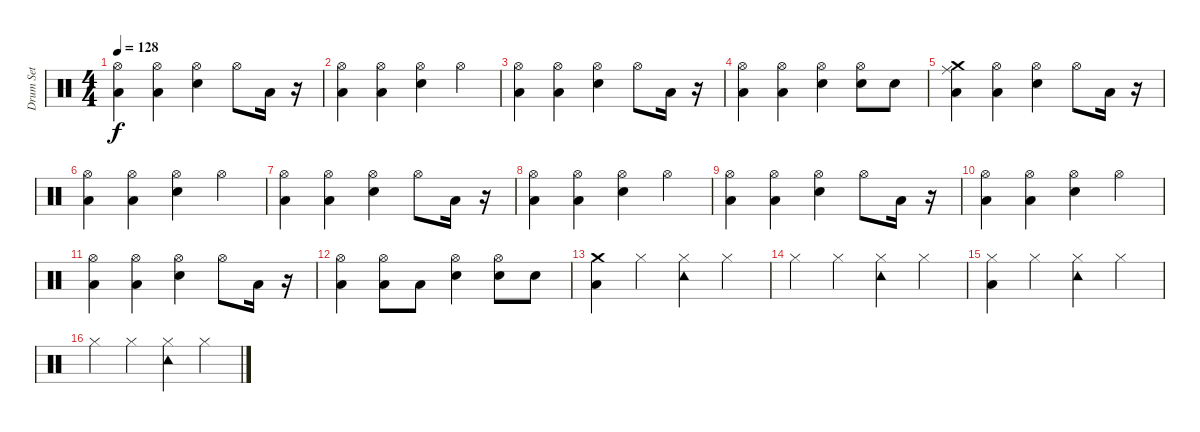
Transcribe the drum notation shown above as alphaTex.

\track ("Drum Set" "Drum Set") {instrument percussion}
\staff {score}
\articulation defaults
\ts (4 4)
\tempo 128
\clef neutral
\ks c
("Hi-Hat (open)" "Low Floor Tom (hit)").4{dy f} ("Hi-Hat (open)" "Low Floor Tom (hit)").4 ("Hi-Hat (open)" "Snare (hit) 2").4 "Hi-Hat (open)".8 "Low Floor Tom (hit)".16 r.16 |
("Hi-Hat (open)" "Low Floor Tom (hit)").4 ("Hi-Hat (open)" "Low Floor Tom (hit)").4 ("Hi-Hat (open)" "Snare (hit) 2").4 "Hi-Hat (open)".4 |
("Hi-Hat (open)" "Low Floor Tom (hit)").4 ("Hi-Hat (open)" "Low Floor Tom (hit)").4 ("Hi-Hat (open)" "Snare (hit) 2").4 "Hi-Hat (open)".8 "Low Floor Tom (hit)".16 r.16 |
("Hi-Hat (open)" "Low Floor Tom (hit)").4 ("Hi-Hat (open)" "Low Floor Tom (hit)").4 ("Hi-Hat (open)" "Snare (hit) 2").4 ("Hi-Hat (open)" "Snare (hit) 2").8 "Snare (hit) 2".8 |
("Crash medium (hit)" "Ride (middle)" "Low Floor Tom (hit)").4 ("Hi-Hat (open)" "Low Floor Tom (hit)").4 ("Hi-Hat (open)" "Snare (hit) 2").4 "Hi-Hat (open)".8 "Low Floor Tom (hit)".16 r.16 |
("Hi-Hat (open)" "Low Floor Tom (hit)").4 ("Hi-Hat (open)" "Low Floor Tom (hit)").4 ("Hi-Hat (open)" "Snare (hit) 2").4 "Hi-Hat (open)".4 |
("Hi-Hat (open)" "Low Floor Tom (hit)").4 ("Hi-Hat (open)" "Low Floor Tom (hit)").4 ("Hi-Hat (open)" "Snare (hit) 2").4 "Hi-Hat (open)".8 "Low Floor Tom (hit)".16 r.16 |
("Hi-Hat (open)" "Low Floor Tom (hit)").4 ("Hi-Hat (open)" "Low Floor Tom (hit)").4 ("Hi-Hat (open)" "Snare (hit) 2").4 "Hi-Hat (open)".4 |
("Hi-Hat (open)" "Low Floor Tom (hit)").4 ("Hi-Hat (open)" "Low Floor Tom (hit)").4 ("Hi-Hat (open)" "Snare (hit) 2").4 "Hi-Hat (open)".8 "Low Floor Tom (hit)".16 r.16 |
("Hi-Hat (open)" "Low Floor Tom (hit)").4 ("Hi-Hat (open)" "Low Floor Tom (hit)").4 ("Hi-Hat (open)" "Snare (hit) 2").4 "Hi-Hat (open)".4 |
("Hi-Hat (open)" "Low Floor Tom (hit)").4 ("Hi-Hat (open)" "Low Floor Tom (hit)").4 ("Hi-Hat (open)" "Snare (hit) 2").4 "Hi-Hat (open)".8 "Low Floor Tom (hit)".16 r.16 |
("Hi-Hat (open)" "Low Floor Tom (hit)").4 ("Hi-Hat (open)" "Low Floor Tom (hit)").8 "Low Floor Tom (hit)".8 ("Hi-Hat (open)" "Snare (hit) 2").4 ("Hi-Hat (open)" "Snare (hit) 2").8 "Snare (hit) 2".8 |
("Crash medium (hit)" "Low Floor Tom (hit)").4 "Hi-Hat (closed)".4 ("Hi-Hat (closed)" "Tambourine (hit)").4 "Hi-Hat (closed)".4 |
"Hi-Hat (closed)".4 "Hi-Hat (closed)".4 ("Hi-Hat (closed)" "Tambourine (hit)").4 "Hi-Hat (closed)".4 |
("Hi-Hat (closed)" "Low Floor Tom (hit)").4 "Hi-Hat (closed)".4 ("Hi-Hat (closed)" "Tambourine (hit)").4 "Hi-Hat (closed)".4 |
"Hi-Hat (closed)".4 "Hi-Hat (closed)".4 ("Hi-Hat (closed)" "Tambourine (hit)").4 "Hi-Hat (closed)".4
